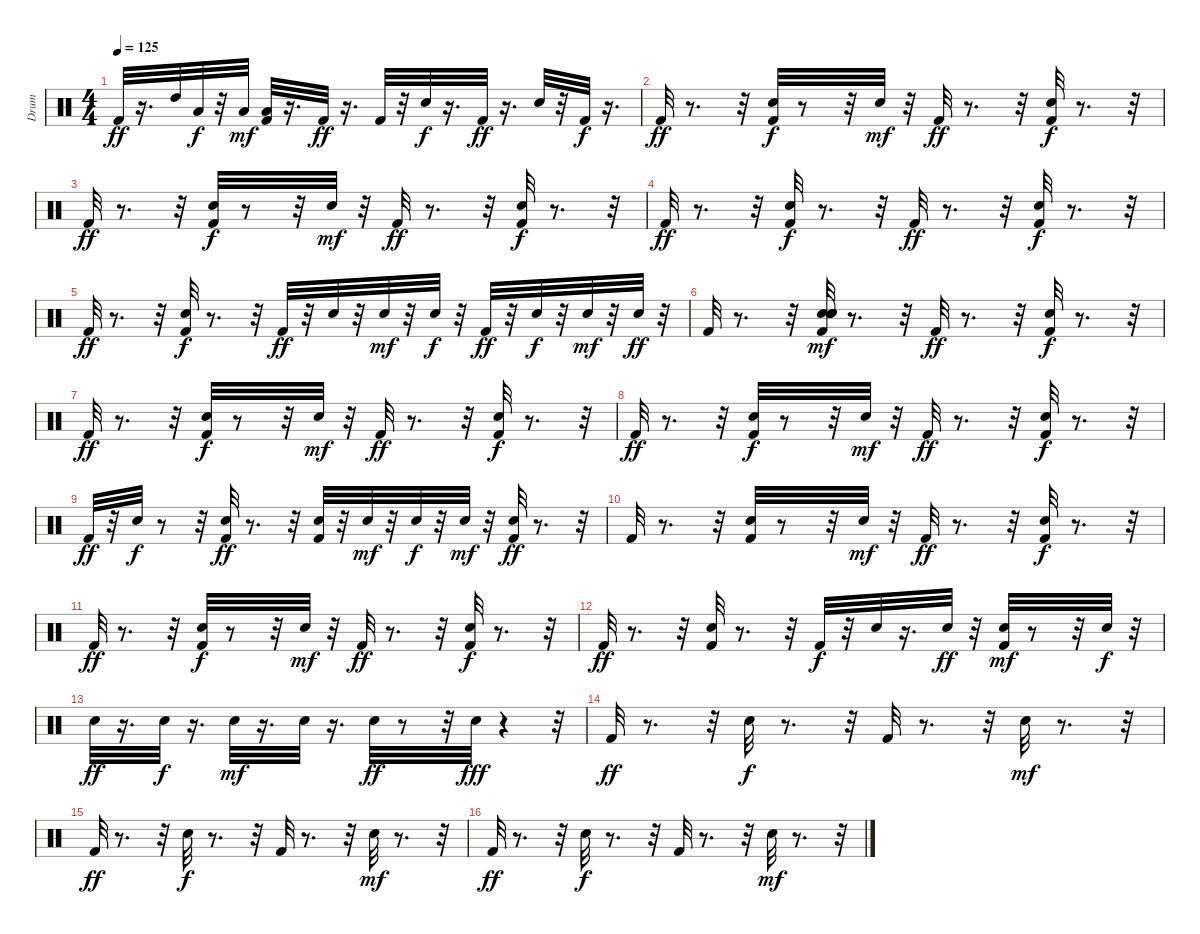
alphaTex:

\track ("Drum" "Drum") {instrument percussion}
\staff {score}
\articulation defaults
\ts (4 4)
\tempo 125
\clef neutral
\ks c "Kick (hit) 2".32{dy ff}
r.16{d} "High Tom (hit)".32 "Low Tom (hit)".32{dy f} r.32 "Low Floor Tom (hit)".32{dy mf} ("Low Floor Tom (hit)" "Kick (hit) 2").32 r.16{d} "Kick (hit) 2".32{dy ff} r.16{d} "Kick (hit) 2".32 r.32 "Snare (hit) 2".32{dy f} r.16{d} "Kick (hit) 2".32{dy ff} r.16{d} "Snare (hit) 2".32 r.32 "Kick (hit) 2".32{dy f} r.16{d} |
"Kick (hit) 2".32{dy ff volume 16} r.8{d} r.32 ("Snare (hit) 2" "Kick (hit) 2").32{dy f} r.8 r.32 "Snare (hit) 2".32{dy mf} r.32 "Kick (hit) 2".32{dy ff} r.8{d} r.32 ("Snare (hit) 2" "Kick (hit) 2").32{dy f} r.8{d} r.32 |
"Kick (hit) 2".32{dy ff} r.8{d} r.32 ("Snare (hit) 2" "Kick (hit) 2").32{dy f} r.8 r.32 "Snare (hit) 2".32{dy mf} r.32 "Kick (hit) 2".32{dy ff} r.8{d} r.32 ("Snare (hit) 2" "Kick (hit) 2").32{dy f} r.8{d} r.32 |
"Kick (hit) 2".32{dy ff} r.8{d} r.32 ("Snare (hit) 2" "Kick (hit) 2").32{dy f} r.8{d} r.32 "Kick (hit) 2".32{dy ff} r.8{d} r.32 ("Snare (hit) 2" "Kick (hit) 2").32{dy f} r.8{d} r.32 |
"Kick (hit) 2".32{dy ff} r.8{d} r.32 ("Snare (hit) 2" "Kick (hit) 2").32{dy f} r.8{d} r.32 "Kick (hit) 2".32{dy ff} r.32 "Snare (hit) 2".32 r.32 "Snare (hit) 2".32{dy mf} r.32 "Snare (hit) 2".32{dy f} r.32 "Kick (hit) 2".32{dy ff} r.32 "Snare (hit) 2".32{dy f} r.32 "Snare (hit) 2".32{dy mf} r.32 "Snare (hit) 2".32{dy ff} r.32 |
"Kick (hit) 2".32 r.8{d} r.32 ("Hand Clap (hit)" "Hand Clap (hit)" "Hand Clap (hit)" "Hand Clap (hit)" "Snare (hit) 2" "Kick (hit) 2").32{dy mf balance 16} r.8{d} r.32 "Kick (hit) 2".32{dy ff} r.8{d} r.32 ("Snare (hit) 2" "Kick (hit) 2").32{dy f} r.8{d} r.32 |
"Kick (hit) 2".32{dy ff} r.8{d} r.32 ("Snare (hit) 2" "Kick (hit) 2").32{dy f} r.8 r.32 "Snare (hit) 2".32{dy mf} r.32 "Kick (hit) 2".32{dy ff} r.8{d} r.32 ("Snare (hit) 2" "Kick (hit) 2").32{dy f} r.8{d} r.32 |
"Kick (hit) 2".32{dy ff} r.8{d} r.32 ("Snare (hit) 2" "Kick (hit) 2").32{dy f} r.8 r.32 "Snare (hit) 2".32{dy mf} r.32 "Kick (hit) 2".32{dy ff} r.8{d} r.32 ("Snare (hit) 2" "Kick (hit) 2").32{dy f} r.8{d} r.32 |
"Kick (hit) 2".32{dy ff} r.32 "Snare (hit) 2".32{dy f} r.8 r.32 ("Snare (hit) 2" "Kick (hit) 2").32{dy ff} r.8{d} r.32 ("Snare (hit) 2" "Kick (hit) 2").32 r.32 "Snare (hit) 2".32{dy mf} r.32 "Snare (hit) 2".32{dy f} r.32 "Snare (hit) 2".32{dy mf} r.32 ("Snare (hit) 2" "Kick (hit) 2").32{dy ff} r.8{d} r.32 |
"Kick (hit) 2".32 r.8{d} r.32 ("Snare (hit) 2" "Kick (hit) 2").32 r.8 r.32 "Snare (hit) 2".32{dy mf} r.32 "Kick (hit) 2".32{dy ff} r.8{d} r.32 ("Snare (hit) 2" "Kick (hit) 2").32{dy f} r.8{d} r.32 |
"Kick (hit) 2".32{dy ff} r.8{d} r.32 ("Snare (hit) 2" "Kick (hit) 2").32{dy f} r.8 r.32 "Snare (hit) 2".32{dy mf} r.32 "Kick (hit) 2".32{dy ff} r.8{d} r.32 ("Snare (hit) 2" "Kick (hit) 2").32{dy f} r.8{d} r.32 |
"Kick (hit) 2".32{dy ff} r.8{d} r.32 ("Snare (hit) 2" "Kick (hit) 2").32 r.8{d} r.32 "Kick (hit) 2".32{dy f} r.32 "Snare (hit) 2".32 r.16{d} "Snare (hit) 2".32{dy ff} r.32 ("Snare (hit) 2" "Kick (hit) 2").32{dy mf} r.8 r.32 "Snare (hit) 2".32{dy f} r.32 |
"Snare (hit) 2".32{dy ff} r.16{d} "Snare (hit) 2".32{dy f} r.16{d} "Snare (hit) 2".32{dy mf} r.16{d} "Snare (hit) 2".32 r.16{d} "Snare (hit) 2".32{dy ff} r.8 r.32 "Snare (hit) 2".32{dy fff} r.4 r.32 |
"Kick (hit) 2".32{dy ff} r.8{d} r.32 "Snare (hit) 2".32{dy f} r.8{d} r.32 "Kick (hit) 2".32 r.8{d} r.32 "Snare (hit) 2".32{dy mf} r.8{d} r.32 |
"Kick (hit) 2".32{dy ff} r.8{d} r.32 "Snare (hit) 2".32{dy f} r.8{d} r.32 "Kick (hit) 2".32 r.8{d} r.32 "Snare (hit) 2".32{dy mf} r.8{d} r.32 |
"Kick (hit) 2".32{dy ff} r.8{d} r.32 "Snare (hit) 2".32{dy f} r.8{d} r.32 "Kick (hit) 2".32 r.8{d} r.32 "Snare (hit) 2".32{dy mf} r.8{d} r.32
